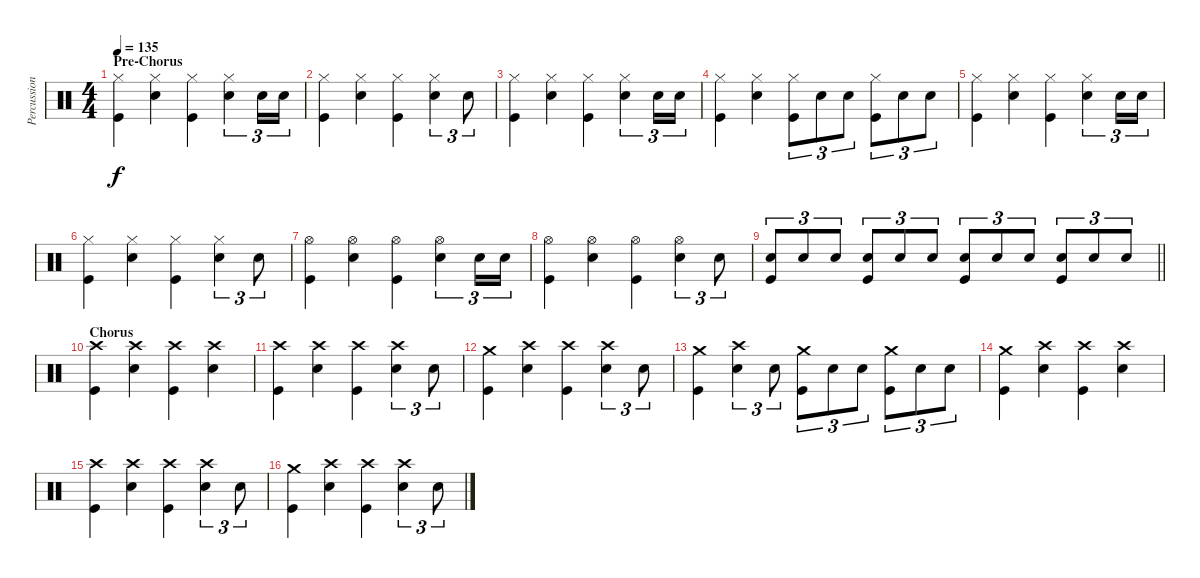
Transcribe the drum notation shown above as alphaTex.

\track ("Percussion" "Percussion") {instrument percussion}
\staff {score}
\articulation defaults
\ts (4 4)
\section ("" "Pre-Chorus")
\tempo 135
\clef neutral
\ks c
("Hi-Hat (closed)" "Kick (hit)").4{dy f} ("Hi-Hat (closed)" "Snare (hit) 2").4 ("Hi-Hat (closed)" "Kick (hit)").4 ("Hi-Hat (closed)" "Snare (hit) 2").4{tu (3 2)} "Snare (hit) 2".16{tu (3 2)} "Snare (hit) 2".16{tu (3 2)} |
("Hi-Hat (closed)" "Kick (hit)").4 ("Hi-Hat (closed)" "Snare (hit) 2").4 ("Hi-Hat (closed)" "Kick (hit)").4 ("Hi-Hat (closed)" "Snare (hit) 2").4{tu (3 2)} "Snare (hit) 2".8{tu (3 2)} |
("Hi-Hat (closed)" "Kick (hit)").4 ("Hi-Hat (closed)" "Snare (hit) 2").4 ("Hi-Hat (closed)" "Kick (hit)").4 ("Hi-Hat (closed)" "Snare (hit) 2").4{tu (3 2)} "Snare (hit) 2".16{tu (3 2)} "Snare (hit) 2".16{tu (3 2)} |
("Hi-Hat (closed)" "Kick (hit)").4 ("Hi-Hat (closed)" "Snare (hit) 2").4 ("Hi-Hat (closed)" "Kick (hit)").8{tu (3 2)} "Snare (hit) 2".8{tu (3 2)} "Snare (hit) 2".8{tu (3 2)} ("Hi-Hat (closed)" "Kick (hit)").8{tu (3 2)} "Snare (hit) 2".8{tu (3 2)} "Snare (hit) 2".8{tu (3 2)} |
("Hi-Hat (closed)" "Kick (hit)").4 ("Hi-Hat (closed)" "Snare (hit) 2").4 ("Hi-Hat (closed)" "Kick (hit)").4 ("Hi-Hat (closed)" "Snare (hit) 2").4{tu (3 2)} "Snare (hit) 2".16{tu (3 2)} "Snare (hit) 2".16{tu (3 2)} |
("Hi-Hat (closed)" "Kick (hit)").4 ("Hi-Hat (closed)" "Snare (hit) 2").4 ("Hi-Hat (closed)" "Kick (hit)").4 ("Hi-Hat (closed)" "Snare (hit) 2").4{tu (3 2)} "Snare (hit) 2".8{tu (3 2)} |
("Hi-Hat (open)" "Kick (hit)").4 ("Hi-Hat (open)" "Snare (hit) 2").4 ("Hi-Hat (open)" "Kick (hit)").4 ("Hi-Hat (open)" "Snare (hit) 2").4{tu (3 2)} "Snare (hit) 2".16{tu (3 2)} "Snare (hit) 2".16{tu (3 2)} |
("Hi-Hat (open)" "Kick (hit)").4 ("Hi-Hat (open)" "Snare (hit) 2").4 ("Hi-Hat (open)" "Kick (hit)").4 ("Hi-Hat (open)" "Snare (hit) 2").4{tu (3 2)} "Snare (hit) 2".8{tu (3 2)} |
\barLineRight lightlight
("Snare (hit) 2" "Kick (hit)").8{tu (3 2)} "Snare (hit) 2".8{tu (3 2)} "Snare (hit) 2".8{tu (3 2)} ("Snare (hit) 2" "Kick (hit)").8{tu (3 2)} "Snare (hit) 2".8{tu (3 2)} "Snare (hit) 2".8{tu (3 2)} ("Snare (hit) 2" "Kick (hit)").8{tu (3 2)} "Snare (hit) 2".8{tu (3 2)} "Snare (hit) 2".8{tu (3 2)} ("Snare (hit) 2" "Kick (hit)").8{tu (3 2)} "Snare (hit) 2".8{tu (3 2)} "Snare (hit) 2".8{tu (3 2)} |
\section ("" "Chorus")
("Crash high (hit)" "Kick (hit)").4 ("Crash high (hit)" "Electric Snare (hit)").4 ("Crash high (hit)" "Kick (hit)").4 ("Crash high (hit)" "Electric Snare (hit)").4 |
("Crash high (hit)" "Kick (hit)").4 ("Crash high (hit)" "Electric Snare (hit)").4 ("Crash high (hit)" "Kick (hit)").4 ("Crash high (hit)" "Electric Snare (hit)").4{tu (3 2)} "Electric Snare (hit)".8{tu (3 2)} |
("Crash medium (hit)" "Kick (hit)").4 ("Crash high (hit)" "Electric Snare (hit)").4 ("Crash high (hit)" "Kick (hit)").4 ("Crash high (hit)" "Electric Snare (hit)").4{tu (3 2)} "Electric Snare (hit)".8{tu (3 2)} |
("Crash medium (hit)" "Kick (hit)").4 ("Crash high (hit)" "Electric Snare (hit)").4{tu (3 2)} "Electric Snare (hit)".8{tu (3 2)} ("Crash medium (hit)" "Kick (hit)").8{tu (3 2)} "Electric Snare (hit)".8{tu (3 2)} "Electric Snare (hit)".8{tu (3 2)} ("Crash medium (hit)" "Kick (hit)").8{tu (3 2)} "Electric Snare (hit)".8{tu (3 2)} "Electric Snare (hit)".8{tu (3 2)} |
("Crash medium (hit)" "Kick (hit)").4 ("Crash high (hit)" "Electric Snare (hit)").4 ("Crash high (hit)" "Kick (hit)").4 ("Crash high (hit)" "Electric Snare (hit)").4 |
("Crash high (hit)" "Kick (hit)").4 ("Crash high (hit)" "Electric Snare (hit)").4 ("Crash high (hit)" "Kick (hit)").4 ("Crash high (hit)" "Electric Snare (hit)").4{tu (3 2)} "Electric Snare (hit)".8{tu (3 2)} |
("Crash medium (hit)" "Kick (hit)").4 ("Crash high (hit)" "Electric Snare (hit)").4 ("Crash high (hit)" "Kick (hit)").4 ("Crash high (hit)" "Electric Snare (hit)").4{tu (3 2)} "Electric Snare (hit)".8{tu (3 2)}
